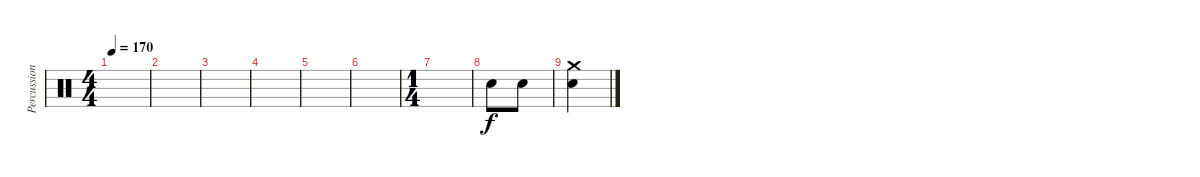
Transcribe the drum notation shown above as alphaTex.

\track ("Percussions" "Percussion") {instrument percussion}
\staff {score}
\articulation defaults
\ts (4 4)
\tempo 170
\clef neutral
\ks c
|
|
|
|
|
|
\ts (1 4)
|
"Snare (hit) 2".8 "Snare (hit) 2".8 |
("Snare (hit) 2" "Crash medium (hit)").4
